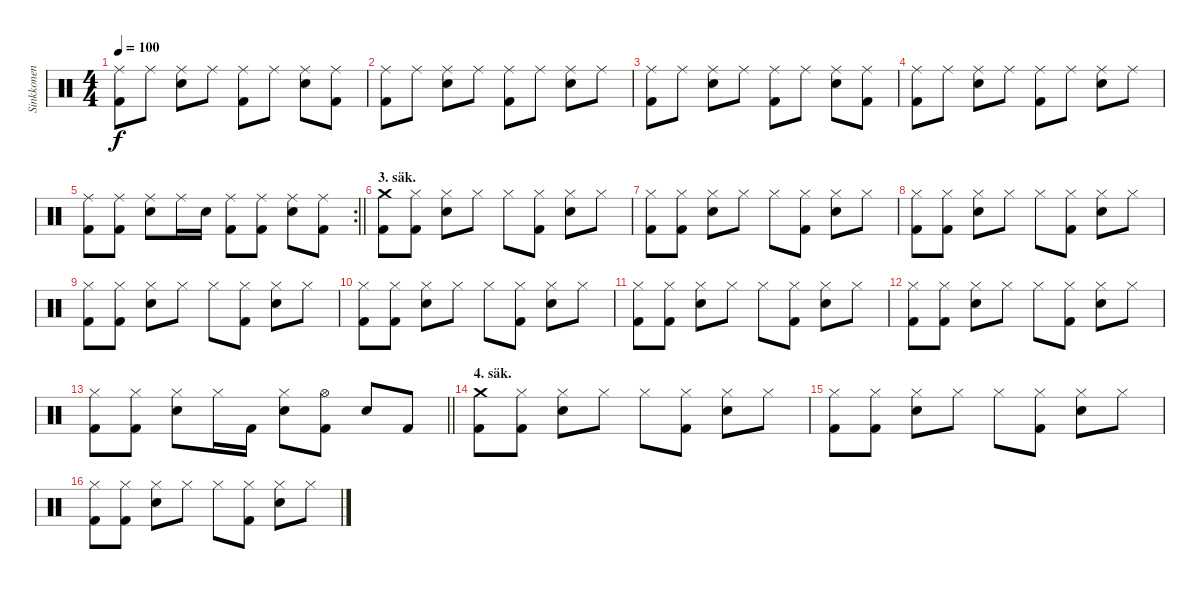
\track ("Sinkkonen" "Sinkkonen") {instrument percussion}
\staff {score}
\articulation defaults
\ts (4 4)
\tempo 100
\clef neutral
\ks c
("Kick (hit) 2" "Ride (middle)").8{dy f} "Ride (middle)".8 ("Ride (middle)" "Electric Snare (hit)").8 "Ride (middle)".8 ("Kick (hit) 2" "Ride (middle)").8 "Ride (middle)".8 ("Ride (middle)" "Electric Snare (hit)").8 ("Kick (hit) 2" "Ride (middle)").8 |
("Kick (hit) 2" "Ride (middle)").8 "Ride (middle)".8 ("Ride (middle)" "Electric Snare (hit)").8 "Ride (middle)".8 ("Kick (hit) 2" "Ride (middle)").8 "Ride (middle)".8 ("Ride (middle)" "Electric Snare (hit)").8 "Ride (middle)".8 |
("Kick (hit) 2" "Ride (middle)").8 "Ride (middle)".8 ("Ride (middle)" "Electric Snare (hit)").8 "Ride (middle)".8 ("Kick (hit) 2" "Ride (middle)").8 "Ride (middle)".8 ("Ride (middle)" "Electric Snare (hit)").8 ("Kick (hit) 2" "Ride (middle)").8 |
("Kick (hit) 2" "Ride (middle)").8 "Ride (middle)".8 ("Ride (middle)" "Electric Snare (hit)").8 "Ride (middle)".8 ("Kick (hit) 2" "Ride (middle)").8 "Ride (middle)".8 ("Ride (middle)" "Electric Snare (hit)").8 "Ride (middle)".8 |
\rc 2
\barLineRight lightlight
("Kick (hit) 2" "Ride (middle)").8 ("Kick (hit) 2" "Ride (middle)").8 ("Ride (middle)" "Electric Snare (hit)").8 "Ride (middle)".16 "Electric Snare (hit)".16 ("Kick (hit) 2" "Ride (middle)").8 ("Kick (hit) 2" "Ride (middle)").8 ("Ride (middle)" "Electric Snare (hit)").8 ("Kick (hit) 2" "Ride (middle)").8 |
\section ("" "3. säk.")
("Kick (hit) 2" "Crash medium (hit)").8 ("Kick (hit) 2" "Hi-Hat (closed)").8 ("Hi-Hat (closed)" "Electric Snare (hit)").8 "Hi-Hat (closed)".8 "Hi-Hat (closed)".8 ("Kick (hit) 2" "Hi-Hat (closed)").8 ("Hi-Hat (closed)" "Electric Snare (hit)").8 "Hi-Hat (closed)".8 |
("Kick (hit) 2" "Hi-Hat (closed)").8 ("Kick (hit) 2" "Hi-Hat (closed)").8 ("Hi-Hat (closed)" "Electric Snare (hit)").8 "Hi-Hat (closed)".8 "Hi-Hat (closed)".8 ("Kick (hit) 2" "Hi-Hat (closed)").8 ("Hi-Hat (closed)" "Electric Snare (hit)").8 "Hi-Hat (closed)".8 |
("Kick (hit) 2" "Hi-Hat (closed)").8 ("Kick (hit) 2" "Hi-Hat (closed)").8 ("Hi-Hat (closed)" "Electric Snare (hit)").8 "Hi-Hat (closed)".8 "Hi-Hat (closed)".8 ("Kick (hit) 2" "Hi-Hat (closed)").8 ("Hi-Hat (closed)" "Electric Snare (hit)").8 "Hi-Hat (closed)".8 |
("Kick (hit) 2" "Hi-Hat (closed)").8 ("Kick (hit) 2" "Hi-Hat (closed)").8 ("Hi-Hat (closed)" "Electric Snare (hit)").8 "Hi-Hat (closed)".8 "Hi-Hat (closed)".8 ("Kick (hit) 2" "Hi-Hat (closed)").8 ("Hi-Hat (closed)" "Electric Snare (hit)").8 "Hi-Hat (closed)".8 |
("Kick (hit) 2" "Hi-Hat (closed)").8 ("Kick (hit) 2" "Hi-Hat (closed)").8 ("Hi-Hat (closed)" "Electric Snare (hit)").8 "Hi-Hat (closed)".8 "Hi-Hat (closed)".8 ("Kick (hit) 2" "Hi-Hat (closed)").8 ("Hi-Hat (closed)" "Electric Snare (hit)").8 "Hi-Hat (closed)".8 |
("Kick (hit) 2" "Hi-Hat (closed)").8 ("Kick (hit) 2" "Hi-Hat (closed)").8 ("Hi-Hat (closed)" "Electric Snare (hit)").8 "Hi-Hat (closed)".8 "Hi-Hat (closed)".8 ("Kick (hit) 2" "Hi-Hat (closed)").8 ("Hi-Hat (closed)" "Electric Snare (hit)").8 "Hi-Hat (closed)".8 |
("Kick (hit) 2" "Hi-Hat (closed)").8 ("Kick (hit) 2" "Hi-Hat (closed)").8 ("Hi-Hat (closed)" "Electric Snare (hit)").8 "Hi-Hat (closed)".8 "Hi-Hat (closed)".8 ("Kick (hit) 2" "Hi-Hat (closed)").8 ("Hi-Hat (closed)" "Electric Snare (hit)").8 "Hi-Hat (closed)".8 |
\barLineRight lightlight
("Kick (hit) 2" "Hi-Hat (closed)").8 ("Kick (hit) 2" "Hi-Hat (closed)").8 ("Hi-Hat (closed)" "Electric Snare (hit)").8 "Hi-Hat (closed)".16 "Kick (hit) 2".16 ("Hi-Hat (closed)" "Electric Snare (hit)").8 ("Kick (hit) 2" "Hi-Hat (open)").8 "Electric Snare (hit)".8 "Kick (hit) 2".8 |
\section ("" "4. säk.")
("Kick (hit) 2" "Crash medium (hit)").8 ("Kick (hit) 2" "Hi-Hat (closed)").8 ("Hi-Hat (closed)" "Electric Snare (hit)").8 "Hi-Hat (closed)".8 "Hi-Hat (closed)".8 ("Kick (hit) 2" "Hi-Hat (closed)").8 ("Hi-Hat (closed)" "Electric Snare (hit)").8 "Hi-Hat (closed)".8 |
("Kick (hit) 2" "Hi-Hat (closed)").8 ("Kick (hit) 2" "Hi-Hat (closed)").8 ("Hi-Hat (closed)" "Electric Snare (hit)").8 "Hi-Hat (closed)".8 "Hi-Hat (closed)".8 ("Kick (hit) 2" "Hi-Hat (closed)").8 ("Hi-Hat (closed)" "Electric Snare (hit)").8 "Hi-Hat (closed)".8 |
("Kick (hit) 2" "Hi-Hat (closed)").8 ("Kick (hit) 2" "Hi-Hat (closed)").8 ("Hi-Hat (closed)" "Electric Snare (hit)").8 "Hi-Hat (closed)".8 "Hi-Hat (closed)".8 ("Kick (hit) 2" "Hi-Hat (closed)").8 ("Hi-Hat (closed)" "Electric Snare (hit)").8 "Hi-Hat (closed)".8
